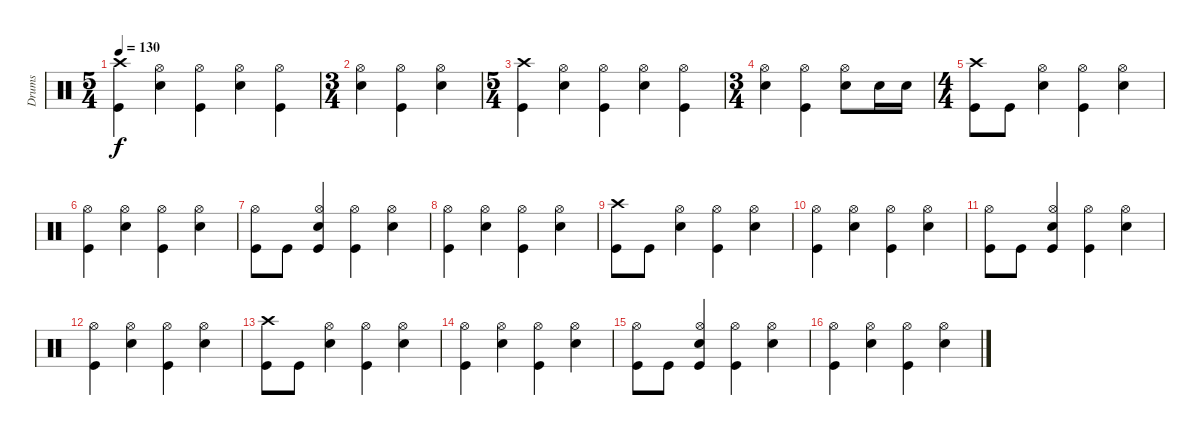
\track ("Drums" "Drums") {instrument percussion}
\staff {score}
\articulation defaults
\ts (5 4)
\tempo 130
\clef neutral
\ks c
("Crash high (hit)" "Kick (hit)").4{dy f} ("Hi-Hat (open)" "Snare (hit) 2").4 ("Hi-Hat (open)" "Kick (hit)").4 ("Hi-Hat (open)" "Snare (hit) 2").4 ("Hi-Hat (open)" "Kick (hit)").4 |
\ts (3 4)
("Hi-Hat (open)" "Snare (hit) 2").4 ("Hi-Hat (open)" "Kick (hit)").4 ("Hi-Hat (open)" "Snare (hit) 2").4 |
\ts (5 4)
("Crash high (hit)" "Kick (hit)").4 ("Hi-Hat (open)" "Snare (hit) 2").4 ("Hi-Hat (open)" "Kick (hit)").4 ("Hi-Hat (open)" "Snare (hit) 2").4 ("Hi-Hat (open)" "Kick (hit)").4 |
\ts (3 4)
("Hi-Hat (open)" "Snare (hit) 2").4 ("Hi-Hat (open)" "Kick (hit)").4 ("Hi-Hat (open)" "Snare (hit) 2").8 "Snare (hit) 2".16 "Snare (hit) 2".16 |
\ts (4 4)
("Crash high (hit)" "Kick (hit)").8 "Kick (hit)".8 ("Hi-Hat (open)" "Snare (hit) 2").4 ("Hi-Hat (open)" "Kick (hit)").4 ("Hi-Hat (open)" "Snare (hit) 2").4 |
("Hi-Hat (open)" "Kick (hit)").4 ("Hi-Hat (open)" "Snare (hit) 2").4 ("Hi-Hat (open)" "Kick (hit)").4 ("Hi-Hat (open)" "Snare (hit) 2").4 |
("Hi-Hat (open)" "Kick (hit)").8 "Kick (hit)".8 ("Hi-Hat (open)" "Snare (hit) 2" "Kick (hit)").4 ("Hi-Hat (open)" "Kick (hit)").4 ("Hi-Hat (open)" "Snare (hit) 2").4 |
("Hi-Hat (open)" "Kick (hit)").4 ("Hi-Hat (open)" "Snare (hit) 2").4 ("Hi-Hat (open)" "Kick (hit)").4 ("Hi-Hat (open)" "Snare (hit) 2").4 |
("Crash high (hit)" "Kick (hit)").8 "Kick (hit)".8 ("Hi-Hat (open)" "Snare (hit) 2").4 ("Hi-Hat (open)" "Kick (hit)").4 ("Hi-Hat (open)" "Snare (hit) 2").4 |
("Hi-Hat (open)" "Kick (hit)").4 ("Hi-Hat (open)" "Snare (hit) 2").4 ("Hi-Hat (open)" "Kick (hit)").4 ("Hi-Hat (open)" "Snare (hit) 2").4 |
("Hi-Hat (open)" "Kick (hit)").8 "Kick (hit)".8 ("Hi-Hat (open)" "Snare (hit) 2" "Kick (hit)").4 ("Hi-Hat (open)" "Kick (hit)").4 ("Hi-Hat (open)" "Snare (hit) 2").4 |
("Hi-Hat (open)" "Kick (hit)").4 ("Hi-Hat (open)" "Snare (hit) 2").4 ("Hi-Hat (open)" "Kick (hit)").4 ("Hi-Hat (open)" "Snare (hit) 2").4 |
("Crash high (hit)" "Kick (hit)").8 "Kick (hit)".8 ("Hi-Hat (open)" "Snare (hit) 2").4 ("Hi-Hat (open)" "Kick (hit)").4 ("Hi-Hat (open)" "Snare (hit) 2").4 |
("Hi-Hat (open)" "Kick (hit)").4 ("Hi-Hat (open)" "Snare (hit) 2").4 ("Hi-Hat (open)" "Kick (hit)").4 ("Hi-Hat (open)" "Snare (hit) 2").4 |
("Hi-Hat (open)" "Kick (hit)").8 "Kick (hit)".8 ("Hi-Hat (open)" "Snare (hit) 2" "Kick (hit)").4 ("Hi-Hat (open)" "Kick (hit)").4 ("Hi-Hat (open)" "Snare (hit) 2").4 |
("Hi-Hat (open)" "Kick (hit)").4 ("Hi-Hat (open)" "Snare (hit) 2").4 ("Hi-Hat (open)" "Kick (hit)").4 ("Hi-Hat (open)" "Snare (hit) 2").4
